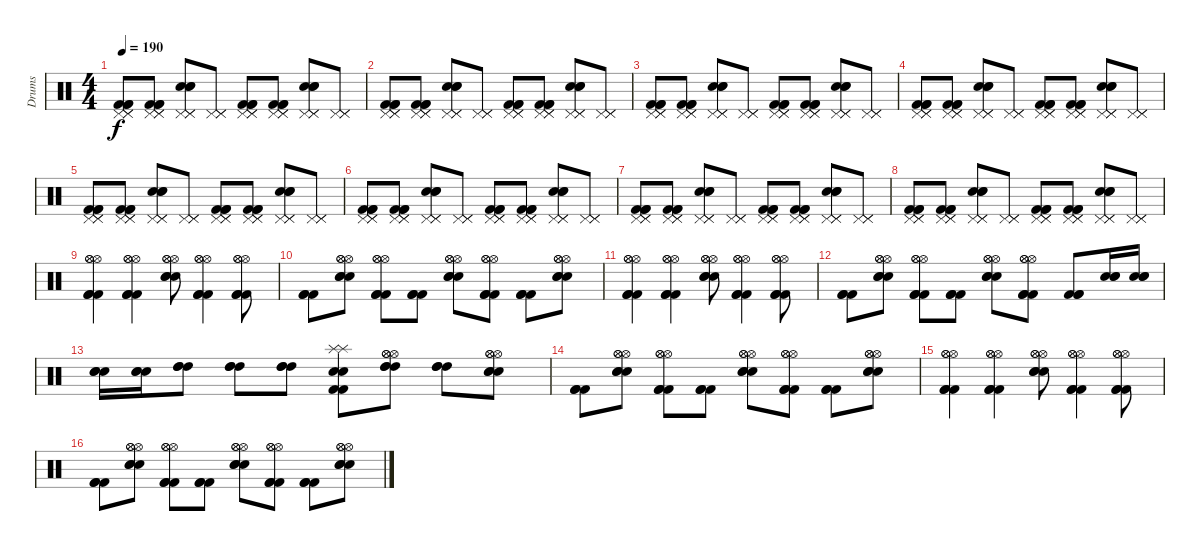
\track ("Drums" "Drums") {instrument percussion}
\staff {score}
\articulation defaults
\ts (4 4)
\tempo 190
\clef neutral
\ks c
("Kick (hit) 2" "Kick (hit) 2" "Kick (hit) 2" "Pedal Hi-Hat (hit)" "Pedal Hi-Hat (hit)" "Pedal Hi-Hat (hit)").8{dy f} ("Kick (hit) 2" "Kick (hit) 2" "Kick (hit) 2" "Pedal Hi-Hat (hit)" "Pedal Hi-Hat (hit)" "Pedal Hi-Hat (hit)").8 ("Snare (hit) 2" "Snare (hit) 2" "Snare (hit) 2" "Pedal Hi-Hat (hit)" "Pedal Hi-Hat (hit)" "Pedal Hi-Hat (hit)").8 ("Pedal Hi-Hat (hit)" "Pedal Hi-Hat (hit)" "Pedal Hi-Hat (hit)").8 ("Kick (hit) 2" "Kick (hit) 2" "Kick (hit) 2" "Pedal Hi-Hat (hit)" "Pedal Hi-Hat (hit)" "Pedal Hi-Hat (hit)").8 ("Kick (hit) 2" "Kick (hit) 2" "Kick (hit) 2" "Pedal Hi-Hat (hit)" "Pedal Hi-Hat (hit)" "Pedal Hi-Hat (hit)").8 ("Snare (hit) 2" "Snare (hit) 2" "Snare (hit) 2" "Pedal Hi-Hat (hit)" "Pedal Hi-Hat (hit)" "Pedal Hi-Hat (hit)").8 ("Pedal Hi-Hat (hit)" "Pedal Hi-Hat (hit)" "Pedal Hi-Hat (hit)").8 |
("Kick (hit) 2" "Kick (hit) 2" "Kick (hit) 2" "Pedal Hi-Hat (hit)" "Pedal Hi-Hat (hit)" "Pedal Hi-Hat (hit)").8 ("Kick (hit) 2" "Kick (hit) 2" "Kick (hit) 2" "Pedal Hi-Hat (hit)" "Pedal Hi-Hat (hit)" "Pedal Hi-Hat (hit)").8 ("Snare (hit) 2" "Snare (hit) 2" "Snare (hit) 2" "Pedal Hi-Hat (hit)" "Pedal Hi-Hat (hit)" "Pedal Hi-Hat (hit)").8 ("Pedal Hi-Hat (hit)" "Pedal Hi-Hat (hit)" "Pedal Hi-Hat (hit)").8 ("Kick (hit) 2" "Kick (hit) 2" "Kick (hit) 2" "Pedal Hi-Hat (hit)" "Pedal Hi-Hat (hit)" "Pedal Hi-Hat (hit)").8 ("Kick (hit) 2" "Kick (hit) 2" "Kick (hit) 2" "Pedal Hi-Hat (hit)" "Pedal Hi-Hat (hit)" "Pedal Hi-Hat (hit)").8 ("Snare (hit) 2" "Snare (hit) 2" "Snare (hit) 2" "Pedal Hi-Hat (hit)" "Pedal Hi-Hat (hit)" "Pedal Hi-Hat (hit)").8 ("Pedal Hi-Hat (hit)" "Pedal Hi-Hat (hit)" "Pedal Hi-Hat (hit)").8 |
("Kick (hit) 2" "Kick (hit) 2" "Kick (hit) 2" "Pedal Hi-Hat (hit)" "Pedal Hi-Hat (hit)" "Pedal Hi-Hat (hit)").8 ("Kick (hit) 2" "Kick (hit) 2" "Kick (hit) 2" "Pedal Hi-Hat (hit)" "Pedal Hi-Hat (hit)" "Pedal Hi-Hat (hit)").8 ("Snare (hit) 2" "Snare (hit) 2" "Snare (hit) 2" "Pedal Hi-Hat (hit)" "Pedal Hi-Hat (hit)" "Pedal Hi-Hat (hit)").8 ("Pedal Hi-Hat (hit)" "Pedal Hi-Hat (hit)" "Pedal Hi-Hat (hit)").8 ("Kick (hit) 2" "Kick (hit) 2" "Kick (hit) 2" "Pedal Hi-Hat (hit)" "Pedal Hi-Hat (hit)" "Pedal Hi-Hat (hit)").8 ("Kick (hit) 2" "Kick (hit) 2" "Kick (hit) 2" "Pedal Hi-Hat (hit)" "Pedal Hi-Hat (hit)" "Pedal Hi-Hat (hit)").8 ("Snare (hit) 2" "Snare (hit) 2" "Snare (hit) 2" "Pedal Hi-Hat (hit)" "Pedal Hi-Hat (hit)" "Pedal Hi-Hat (hit)").8 ("Pedal Hi-Hat (hit)" "Pedal Hi-Hat (hit)" "Pedal Hi-Hat (hit)").8 |
("Kick (hit) 2" "Kick (hit) 2" "Kick (hit) 2" "Pedal Hi-Hat (hit)" "Pedal Hi-Hat (hit)" "Pedal Hi-Hat (hit)").8 ("Kick (hit) 2" "Kick (hit) 2" "Kick (hit) 2" "Pedal Hi-Hat (hit)" "Pedal Hi-Hat (hit)" "Pedal Hi-Hat (hit)").8 ("Snare (hit) 2" "Snare (hit) 2" "Snare (hit) 2" "Pedal Hi-Hat (hit)" "Pedal Hi-Hat (hit)" "Pedal Hi-Hat (hit)").8 ("Pedal Hi-Hat (hit)" "Pedal Hi-Hat (hit)" "Pedal Hi-Hat (hit)").8 ("Kick (hit) 2" "Kick (hit) 2" "Kick (hit) 2" "Pedal Hi-Hat (hit)" "Pedal Hi-Hat (hit)" "Pedal Hi-Hat (hit)").8 ("Kick (hit) 2" "Kick (hit) 2" "Kick (hit) 2" "Pedal Hi-Hat (hit)" "Pedal Hi-Hat (hit)" "Pedal Hi-Hat (hit)").8 ("Snare (hit) 2" "Snare (hit) 2" "Snare (hit) 2" "Pedal Hi-Hat (hit)" "Pedal Hi-Hat (hit)" "Pedal Hi-Hat (hit)").8 ("Pedal Hi-Hat (hit)" "Pedal Hi-Hat (hit)" "Pedal Hi-Hat (hit)").8 |
("Kick (hit) 2" "Kick (hit) 2" "Kick (hit) 2" "Pedal Hi-Hat (hit)" "Pedal Hi-Hat (hit)" "Pedal Hi-Hat (hit)").8 ("Kick (hit) 2" "Kick (hit) 2" "Kick (hit) 2" "Pedal Hi-Hat (hit)" "Pedal Hi-Hat (hit)" "Pedal Hi-Hat (hit)").8 ("Snare (hit) 2" "Snare (hit) 2" "Snare (hit) 2" "Pedal Hi-Hat (hit)" "Pedal Hi-Hat (hit)" "Pedal Hi-Hat (hit)").8 ("Pedal Hi-Hat (hit)" "Pedal Hi-Hat (hit)" "Pedal Hi-Hat (hit)").8 ("Kick (hit) 2" "Kick (hit) 2" "Kick (hit) 2" "Pedal Hi-Hat (hit)" "Pedal Hi-Hat (hit)" "Pedal Hi-Hat (hit)").8 ("Kick (hit) 2" "Kick (hit) 2" "Kick (hit) 2" "Pedal Hi-Hat (hit)" "Pedal Hi-Hat (hit)" "Pedal Hi-Hat (hit)").8 ("Snare (hit) 2" "Snare (hit) 2" "Snare (hit) 2" "Pedal Hi-Hat (hit)" "Pedal Hi-Hat (hit)" "Pedal Hi-Hat (hit)").8 ("Pedal Hi-Hat (hit)" "Pedal Hi-Hat (hit)" "Pedal Hi-Hat (hit)").8 |
("Kick (hit) 2" "Kick (hit) 2" "Kick (hit) 2" "Pedal Hi-Hat (hit)" "Pedal Hi-Hat (hit)" "Pedal Hi-Hat (hit)").8 ("Kick (hit) 2" "Kick (hit) 2" "Kick (hit) 2" "Pedal Hi-Hat (hit)" "Pedal Hi-Hat (hit)" "Pedal Hi-Hat (hit)").8 ("Snare (hit) 2" "Snare (hit) 2" "Snare (hit) 2" "Pedal Hi-Hat (hit)" "Pedal Hi-Hat (hit)" "Pedal Hi-Hat (hit)").8 ("Pedal Hi-Hat (hit)" "Pedal Hi-Hat (hit)" "Pedal Hi-Hat (hit)").8 ("Kick (hit) 2" "Kick (hit) 2" "Kick (hit) 2" "Pedal Hi-Hat (hit)" "Pedal Hi-Hat (hit)" "Pedal Hi-Hat (hit)").8 ("Kick (hit) 2" "Kick (hit) 2" "Kick (hit) 2" "Pedal Hi-Hat (hit)" "Pedal Hi-Hat (hit)" "Pedal Hi-Hat (hit)").8 ("Snare (hit) 2" "Snare (hit) 2" "Snare (hit) 2" "Pedal Hi-Hat (hit)" "Pedal Hi-Hat (hit)" "Pedal Hi-Hat (hit)").8 ("Pedal Hi-Hat (hit)" "Pedal Hi-Hat (hit)" "Pedal Hi-Hat (hit)").8 |
("Kick (hit) 2" "Kick (hit) 2" "Kick (hit) 2" "Pedal Hi-Hat (hit)" "Pedal Hi-Hat (hit)" "Pedal Hi-Hat (hit)").8 ("Kick (hit) 2" "Kick (hit) 2" "Kick (hit) 2" "Pedal Hi-Hat (hit)" "Pedal Hi-Hat (hit)" "Pedal Hi-Hat (hit)").8 ("Snare (hit) 2" "Snare (hit) 2" "Snare (hit) 2" "Pedal Hi-Hat (hit)" "Pedal Hi-Hat (hit)" "Pedal Hi-Hat (hit)").8 ("Pedal Hi-Hat (hit)" "Pedal Hi-Hat (hit)" "Pedal Hi-Hat (hit)").8 ("Kick (hit) 2" "Kick (hit) 2" "Kick (hit) 2" "Pedal Hi-Hat (hit)" "Pedal Hi-Hat (hit)" "Pedal Hi-Hat (hit)").8 ("Kick (hit) 2" "Kick (hit) 2" "Kick (hit) 2" "Pedal Hi-Hat (hit)" "Pedal Hi-Hat (hit)" "Pedal Hi-Hat (hit)").8 ("Snare (hit) 2" "Snare (hit) 2" "Snare (hit) 2" "Pedal Hi-Hat (hit)" "Pedal Hi-Hat (hit)" "Pedal Hi-Hat (hit)").8 ("Pedal Hi-Hat (hit)" "Pedal Hi-Hat (hit)" "Pedal Hi-Hat (hit)").8 |
("Kick (hit) 2" "Kick (hit) 2" "Kick (hit) 2" "Pedal Hi-Hat (hit)" "Pedal Hi-Hat (hit)" "Pedal Hi-Hat (hit)").8 ("Kick (hit) 2" "Kick (hit) 2" "Kick (hit) 2" "Pedal Hi-Hat (hit)" "Pedal Hi-Hat (hit)" "Pedal Hi-Hat (hit)").8 ("Snare (hit) 2" "Snare (hit) 2" "Snare (hit) 2" "Pedal Hi-Hat (hit)" "Pedal Hi-Hat (hit)" "Pedal Hi-Hat (hit)").8 ("Pedal Hi-Hat (hit)" "Pedal Hi-Hat (hit)" "Pedal Hi-Hat (hit)").8 ("Kick (hit) 2" "Kick (hit) 2" "Kick (hit) 2" "Pedal Hi-Hat (hit)" "Pedal Hi-Hat (hit)" "Pedal Hi-Hat (hit)").8 ("Kick (hit) 2" "Kick (hit) 2" "Kick (hit) 2" "Pedal Hi-Hat (hit)" "Pedal Hi-Hat (hit)" "Pedal Hi-Hat (hit)").8 ("Snare (hit) 2" "Snare (hit) 2" "Snare (hit) 2" "Pedal Hi-Hat (hit)" "Pedal Hi-Hat (hit)" "Pedal Hi-Hat (hit)").8 ("Pedal Hi-Hat (hit)" "Pedal Hi-Hat (hit)" "Pedal Hi-Hat (hit)").8 |
("Kick (hit) 2" "Kick (hit) 2" "Kick (hit) 2" "Hi-Hat (open)" "Hi-Hat (open)" "Hi-Hat (open)").4 ("Kick (hit) 2" "Kick (hit) 2" "Kick (hit) 2" "Hi-Hat (open)" "Hi-Hat (open)" "Hi-Hat (open)").4 ("Snare (hit) 2" "Snare (hit) 2" "Snare (hit) 2" "Hi-Hat (open)" "Hi-Hat (open)" "Hi-Hat (open)").8 ("Kick (hit) 2" "Kick (hit) 2" "Kick (hit) 2" "Hi-Hat (open)" "Hi-Hat (open)" "Hi-Hat (open)").4 ("Kick (hit) 2" "Kick (hit) 2" "Kick (hit) 2" "Hi-Hat (open)" "Hi-Hat (open)" "Hi-Hat (open)").8 |
("Kick (hit) 2" "Kick (hit) 2" "Kick (hit) 2").8 ("Snare (hit) 2" "Snare (hit) 2" "Snare (hit) 2" "Hi-Hat (open)" "Hi-Hat (open)" "Hi-Hat (open)").8 ("Kick (hit) 2" "Kick (hit) 2" "Kick (hit) 2" "Hi-Hat (open)" "Hi-Hat (open)" "Hi-Hat (open)").8 ("Kick (hit) 2" "Kick (hit) 2" "Kick (hit) 2").8 ("Snare (hit) 2" "Snare (hit) 2" "Snare (hit) 2" "Hi-Hat (open)" "Hi-Hat (open)" "Hi-Hat (open)").8 ("Kick (hit) 2" "Kick (hit) 2" "Kick (hit) 2" "Hi-Hat (open)" "Hi-Hat (open)" "Hi-Hat (open)").8 ("Kick (hit) 2" "Kick (hit) 2" "Kick (hit) 2").8 ("Snare (hit) 2" "Snare (hit) 2" "Snare (hit) 2" "Hi-Hat (open)" "Hi-Hat (open)" "Hi-Hat (open)").8 |
("Kick (hit) 2" "Kick (hit) 2" "Kick (hit) 2" "Hi-Hat (open)" "Hi-Hat (open)" "Hi-Hat (open)").4 ("Kick (hit) 2" "Kick (hit) 2" "Kick (hit) 2" "Hi-Hat (open)" "Hi-Hat (open)" "Hi-Hat (open)").4 ("Snare (hit) 2" "Snare (hit) 2" "Snare (hit) 2" "Hi-Hat (open)" "Hi-Hat (open)" "Hi-Hat (open)").8 ("Kick (hit) 2" "Kick (hit) 2" "Kick (hit) 2" "Hi-Hat (open)" "Hi-Hat (open)" "Hi-Hat (open)").4 ("Kick (hit) 2" "Kick (hit) 2" "Kick (hit) 2" "Hi-Hat (open)" "Hi-Hat (open)" "Hi-Hat (open)").8 |
("Kick (hit) 2" "Kick (hit) 2" "Kick (hit) 2").8 ("Snare (hit) 2" "Snare (hit) 2" "Snare (hit) 2" "Hi-Hat (open)" "Hi-Hat (open)" "Hi-Hat (open)").8 ("Kick (hit) 2" "Kick (hit) 2" "Kick (hit) 2" "Hi-Hat (open)" "Hi-Hat (open)" "Hi-Hat (open)").8 ("Kick (hit) 2" "Kick (hit) 2" "Kick (hit) 2").8 ("Snare (hit) 2" "Snare (hit) 2" "Snare (hit) 2" "Hi-Hat (open)" "Hi-Hat (open)" "Hi-Hat (open)").8 ("Kick (hit) 2" "Kick (hit) 2" "Kick (hit) 2" "Hi-Hat (open)" "Hi-Hat (open)" "Hi-Hat (open)").8 ("Kick (hit) 2" "Kick (hit) 2" "Kick (hit) 2").8 ("Snare (hit) 2" "Snare (hit) 2" "Snare (hit) 2").16 ("Snare (hit) 2" "Snare (hit) 2" "Snare (hit) 2").16 |
("Snare (hit) 2" "Snare (hit) 2" "Snare (hit) 2").16 ("Snare (hit) 2" "Snare (hit) 2" "Snare (hit) 2").16 ("High Tom (hit)" "High Tom (hit)" "High Tom (hit)").8 ("High Tom (hit)" "High Tom (hit)" "High Tom (hit)").8 ("High Tom (hit)" "High Tom (hit)" "High Tom (hit)").8 ("Snare (hit) 2" "Snare (hit) 2" "Kick (hit) 2" "Kick (hit) 2" "Splash (hit)" "Splash (hit)").8 ("High Tom (hit)" "High Tom (hit)" "High Tom (hit)" "Hi-Hat (open)" "Hi-Hat (open)" "Hi-Hat (open)").8 ("High Tom (hit)" "High Tom (hit)" "High Tom (hit)").8 ("Snare (hit) 2" "Snare (hit) 2" "Snare (hit) 2" "Hi-Hat (open)" "Hi-Hat (open)" "Hi-Hat (open)").8 |
("Kick (hit) 2" "Kick (hit) 2" "Kick (hit) 2").8 ("Snare (hit) 2" "Snare (hit) 2" "Snare (hit) 2" "Hi-Hat (open)" "Hi-Hat (open)" "Hi-Hat (open)").8 ("Kick (hit) 2" "Kick (hit) 2" "Kick (hit) 2" "Hi-Hat (open)" "Hi-Hat (open)" "Hi-Hat (open)").8 ("Kick (hit) 2" "Kick (hit) 2" "Kick (hit) 2").8 ("Snare (hit) 2" "Snare (hit) 2" "Snare (hit) 2" "Hi-Hat (open)" "Hi-Hat (open)" "Hi-Hat (open)").8 ("Kick (hit) 2" "Kick (hit) 2" "Kick (hit) 2" "Hi-Hat (open)" "Hi-Hat (open)" "Hi-Hat (open)").8 ("Kick (hit) 2" "Kick (hit) 2" "Kick (hit) 2").8 ("Snare (hit) 2" "Snare (hit) 2" "Snare (hit) 2" "Hi-Hat (open)" "Hi-Hat (open)" "Hi-Hat (open)").8 |
("Kick (hit) 2" "Kick (hit) 2" "Kick (hit) 2" "Hi-Hat (open)" "Hi-Hat (open)" "Hi-Hat (open)").4 ("Kick (hit) 2" "Kick (hit) 2" "Kick (hit) 2" "Hi-Hat (open)" "Hi-Hat (open)" "Hi-Hat (open)").4 ("Snare (hit) 2" "Snare (hit) 2" "Snare (hit) 2" "Hi-Hat (open)" "Hi-Hat (open)" "Hi-Hat (open)").8 ("Kick (hit) 2" "Kick (hit) 2" "Kick (hit) 2" "Hi-Hat (open)" "Hi-Hat (open)" "Hi-Hat (open)").4 ("Kick (hit) 2" "Kick (hit) 2" "Kick (hit) 2" "Hi-Hat (open)" "Hi-Hat (open)" "Hi-Hat (open)").8 |
("Kick (hit) 2" "Kick (hit) 2" "Kick (hit) 2").8 ("Snare (hit) 2" "Snare (hit) 2" "Snare (hit) 2" "Hi-Hat (open)" "Hi-Hat (open)" "Hi-Hat (open)").8 ("Kick (hit) 2" "Kick (hit) 2" "Kick (hit) 2" "Hi-Hat (open)" "Hi-Hat (open)" "Hi-Hat (open)").8 ("Kick (hit) 2" "Kick (hit) 2" "Kick (hit) 2").8 ("Snare (hit) 2" "Snare (hit) 2" "Snare (hit) 2" "Hi-Hat (open)" "Hi-Hat (open)" "Hi-Hat (open)").8 ("Kick (hit) 2" "Kick (hit) 2" "Kick (hit) 2" "Hi-Hat (open)" "Hi-Hat (open)" "Hi-Hat (open)").8 ("Kick (hit) 2" "Kick (hit) 2" "Kick (hit) 2").8 ("Snare (hit) 2" "Snare (hit) 2" "Snare (hit) 2" "Hi-Hat (open)" "Hi-Hat (open)" "Hi-Hat (open)").8
